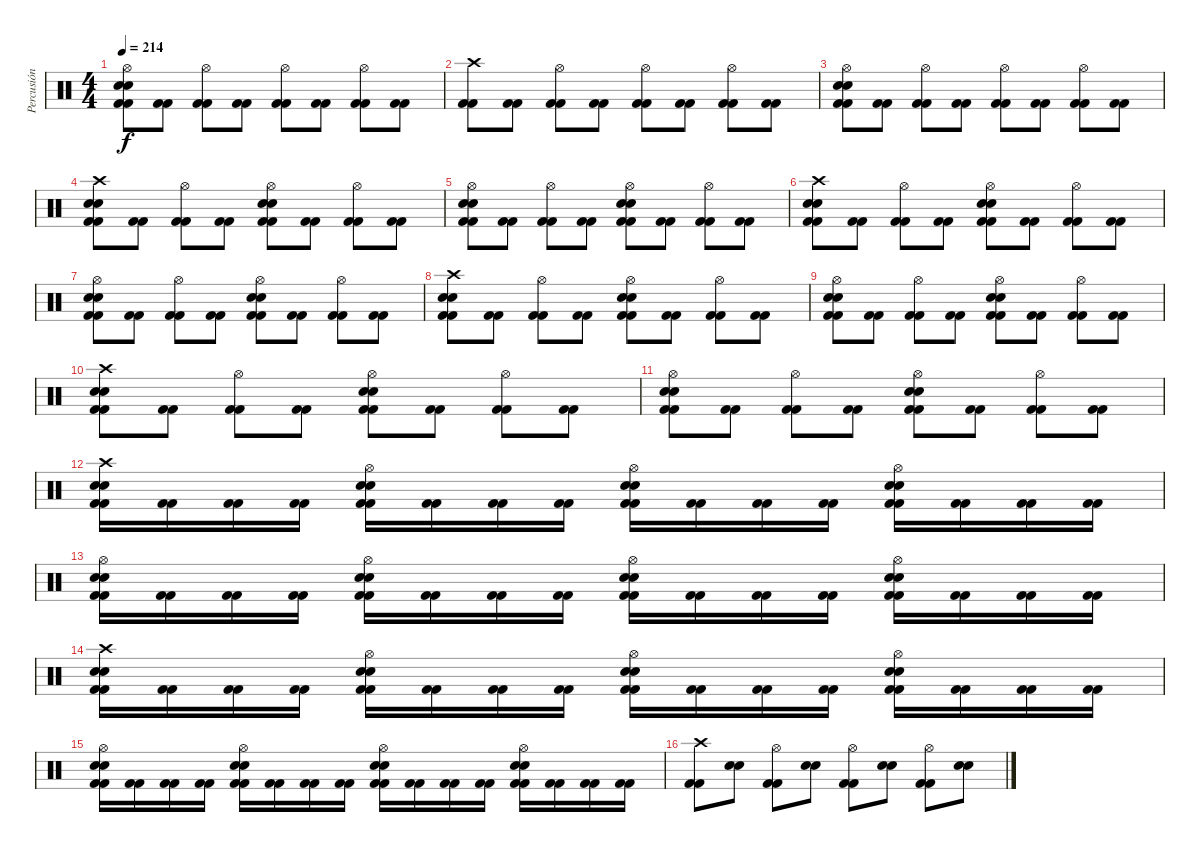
\track ("Percusión" "Percusión") {instrument percussion}
\staff {score}
\articulation defaults
\ts (4 4)
\tempo 214
\clef neutral
\ks c
("Kick (hit) 2" "Kick (hit) 2" "Electric Snare (hit)" "Electric Snare (hit)" "Hi-Hat (open)").8{dy f} ("Kick (hit) 2" "Kick (hit) 2").8 ("Kick (hit) 2" "Kick (hit) 2" "Hi-Hat (open)").8 ("Kick (hit) 2" "Kick (hit) 2").8 ("Kick (hit) 2" "Kick (hit) 2" "Hi-Hat (open)").8 ("Kick (hit) 2" "Kick (hit) 2").8 ("Kick (hit) 2" "Kick (hit) 2" "Hi-Hat (open)").8 ("Kick (hit) 2" "Kick (hit) 2").8 |
("Kick (hit) 2" "Kick (hit) 2" "Crash high (hit)").8 ("Kick (hit) 2" "Kick (hit) 2").8 ("Kick (hit) 2" "Kick (hit) 2" "Hi-Hat (open)").8 ("Kick (hit) 2" "Kick (hit) 2").8 ("Kick (hit) 2" "Kick (hit) 2" "Hi-Hat (open)").8 ("Kick (hit) 2" "Kick (hit) 2").8 ("Kick (hit) 2" "Kick (hit) 2" "Hi-Hat (open)").8 ("Kick (hit) 2" "Kick (hit) 2").8 |
("Kick (hit) 2" "Kick (hit) 2" "Electric Snare (hit)" "Electric Snare (hit)" "Hi-Hat (open)").8 ("Kick (hit) 2" "Kick (hit) 2").8 ("Kick (hit) 2" "Kick (hit) 2" "Hi-Hat (open)").8 ("Kick (hit) 2" "Kick (hit) 2").8 ("Kick (hit) 2" "Kick (hit) 2" "Hi-Hat (open)").8 ("Kick (hit) 2" "Kick (hit) 2").8 ("Kick (hit) 2" "Kick (hit) 2" "Hi-Hat (open)").8 ("Kick (hit) 2" "Kick (hit) 2").8 |
("Kick (hit) 2" "Kick (hit) 2" "Electric Snare (hit)" "Electric Snare (hit)" "Crash high (hit)").8 ("Kick (hit) 2" "Kick (hit) 2").8 ("Kick (hit) 2" "Kick (hit) 2" "Hi-Hat (open)").8 ("Kick (hit) 2" "Kick (hit) 2").8 ("Kick (hit) 2" "Kick (hit) 2" "Electric Snare (hit)" "Electric Snare (hit)" "Hi-Hat (open)").8 ("Kick (hit) 2" "Kick (hit) 2").8 ("Kick (hit) 2" "Kick (hit) 2" "Hi-Hat (open)").8 ("Kick (hit) 2" "Kick (hit) 2").8 |
("Kick (hit) 2" "Kick (hit) 2" "Electric Snare (hit)" "Electric Snare (hit)" "Hi-Hat (open)").8 ("Kick (hit) 2" "Kick (hit) 2").8 ("Kick (hit) 2" "Kick (hit) 2" "Hi-Hat (open)").8 ("Kick (hit) 2" "Kick (hit) 2").8 ("Kick (hit) 2" "Kick (hit) 2" "Electric Snare (hit)" "Electric Snare (hit)" "Hi-Hat (open)").8 ("Kick (hit) 2" "Kick (hit) 2").8 ("Kick (hit) 2" "Kick (hit) 2" "Hi-Hat (open)").8 ("Kick (hit) 2" "Kick (hit) 2").8 |
("Kick (hit) 2" "Kick (hit) 2" "Electric Snare (hit)" "Electric Snare (hit)" "Crash high (hit)").8 ("Kick (hit) 2" "Kick (hit) 2").8 ("Kick (hit) 2" "Kick (hit) 2" "Hi-Hat (open)").8 ("Kick (hit) 2" "Kick (hit) 2").8 ("Kick (hit) 2" "Kick (hit) 2" "Electric Snare (hit)" "Electric Snare (hit)" "Hi-Hat (open)").8 ("Kick (hit) 2" "Kick (hit) 2").8 ("Kick (hit) 2" "Kick (hit) 2" "Hi-Hat (open)").8 ("Kick (hit) 2" "Kick (hit) 2").8 |
("Kick (hit) 2" "Kick (hit) 2" "Electric Snare (hit)" "Electric Snare (hit)" "Hi-Hat (open)").8 ("Kick (hit) 2" "Kick (hit) 2").8 ("Kick (hit) 2" "Kick (hit) 2" "Hi-Hat (open)").8 ("Kick (hit) 2" "Kick (hit) 2").8 ("Kick (hit) 2" "Kick (hit) 2" "Electric Snare (hit)" "Electric Snare (hit)" "Hi-Hat (open)").8 ("Kick (hit) 2" "Kick (hit) 2").8 ("Kick (hit) 2" "Kick (hit) 2" "Hi-Hat (open)").8 ("Kick (hit) 2" "Kick (hit) 2").8 |
("Kick (hit) 2" "Kick (hit) 2" "Electric Snare (hit)" "Electric Snare (hit)" "Crash high (hit)").8 ("Kick (hit) 2" "Kick (hit) 2").8 ("Kick (hit) 2" "Kick (hit) 2" "Hi-Hat (open)").8 ("Kick (hit) 2" "Kick (hit) 2").8 ("Kick (hit) 2" "Kick (hit) 2" "Electric Snare (hit)" "Electric Snare (hit)" "Hi-Hat (open)").8 ("Kick (hit) 2" "Kick (hit) 2").8 ("Kick (hit) 2" "Kick (hit) 2" "Hi-Hat (open)").8 ("Kick (hit) 2" "Kick (hit) 2").8 |
("Kick (hit) 2" "Kick (hit) 2" "Electric Snare (hit)" "Electric Snare (hit)" "Hi-Hat (open)").8 ("Kick (hit) 2" "Kick (hit) 2").8 ("Kick (hit) 2" "Kick (hit) 2" "Hi-Hat (open)").8 ("Kick (hit) 2" "Kick (hit) 2").8 ("Kick (hit) 2" "Kick (hit) 2" "Electric Snare (hit)" "Electric Snare (hit)" "Hi-Hat (open)").8 ("Kick (hit) 2" "Kick (hit) 2").8 ("Kick (hit) 2" "Kick (hit) 2" "Hi-Hat (open)").8 ("Kick (hit) 2" "Kick (hit) 2").8 |
("Kick (hit) 2" "Kick (hit) 2" "Electric Snare (hit)" "Electric Snare (hit)" "Crash high (hit)").8 ("Kick (hit) 2" "Kick (hit) 2").8 ("Kick (hit) 2" "Kick (hit) 2" "Hi-Hat (open)").8 ("Kick (hit) 2" "Kick (hit) 2").8 ("Kick (hit) 2" "Kick (hit) 2" "Electric Snare (hit)" "Electric Snare (hit)" "Hi-Hat (open)").8 ("Kick (hit) 2" "Kick (hit) 2").8 ("Kick (hit) 2" "Kick (hit) 2" "Hi-Hat (open)").8 ("Kick (hit) 2" "Kick (hit) 2").8 |
("Kick (hit) 2" "Kick (hit) 2" "Electric Snare (hit)" "Electric Snare (hit)" "Hi-Hat (open)").8 ("Kick (hit) 2" "Kick (hit) 2").8 ("Kick (hit) 2" "Kick (hit) 2" "Hi-Hat (open)").8 ("Kick (hit) 2" "Kick (hit) 2").8 ("Kick (hit) 2" "Kick (hit) 2" "Electric Snare (hit)" "Electric Snare (hit)" "Hi-Hat (open)").8 ("Kick (hit) 2" "Kick (hit) 2").8 ("Kick (hit) 2" "Kick (hit) 2" "Hi-Hat (open)").8 ("Kick (hit) 2" "Kick (hit) 2").8 |
("Kick (hit) 2" "Kick (hit) 2" "Electric Snare (hit)" "Electric Snare (hit)" "Crash high (hit)").16 ("Kick (hit) 2" "Kick (hit) 2").16 ("Kick (hit) 2" "Kick (hit) 2").16 ("Kick (hit) 2" "Kick (hit) 2").16 ("Kick (hit) 2" "Kick (hit) 2" "Electric Snare (hit)" "Electric Snare (hit)" "Hi-Hat (open)").16 ("Kick (hit) 2" "Kick (hit) 2").16 ("Kick (hit) 2" "Kick (hit) 2").16 ("Kick (hit) 2" "Kick (hit) 2").16 ("Kick (hit) 2" "Kick (hit) 2" "Electric Snare (hit)" "Electric Snare (hit)" "Hi-Hat (open)").16 ("Kick (hit) 2" "Kick (hit) 2").16 ("Kick (hit) 2" "Kick (hit) 2").16 ("Kick (hit) 2" "Kick (hit) 2").16 ("Kick (hit) 2" "Kick (hit) 2" "Electric Snare (hit)" "Electric Snare (hit)" "Hi-Hat (open)").16 ("Kick (hit) 2" "Kick (hit) 2").16 ("Kick (hit) 2" "Kick (hit) 2").16 ("Kick (hit) 2" "Kick (hit) 2").16 |
("Kick (hit) 2" "Kick (hit) 2" "Electric Snare (hit)" "Electric Snare (hit)" "Hi-Hat (open)").16 ("Kick (hit) 2" "Kick (hit) 2").16 ("Kick (hit) 2" "Kick (hit) 2").16 ("Kick (hit) 2" "Kick (hit) 2").16 ("Kick (hit) 2" "Kick (hit) 2" "Electric Snare (hit)" "Electric Snare (hit)" "Hi-Hat (open)").16 ("Kick (hit) 2" "Kick (hit) 2").16 ("Kick (hit) 2" "Kick (hit) 2").16 ("Kick (hit) 2" "Kick (hit) 2").16 ("Kick (hit) 2" "Kick (hit) 2" "Electric Snare (hit)" "Electric Snare (hit)" "Hi-Hat (open)").16 ("Kick (hit) 2" "Kick (hit) 2").16 ("Kick (hit) 2" "Kick (hit) 2").16 ("Kick (hit) 2" "Kick (hit) 2").16 ("Kick (hit) 2" "Kick (hit) 2" "Electric Snare (hit)" "Electric Snare (hit)" "Hi-Hat (open)").16 ("Kick (hit) 2" "Kick (hit) 2").16 ("Kick (hit) 2" "Kick (hit) 2").16 ("Kick (hit) 2" "Kick (hit) 2").16 |
("Kick (hit) 2" "Kick (hit) 2" "Electric Snare (hit)" "Electric Snare (hit)" "Crash high (hit)").16 ("Kick (hit) 2" "Kick (hit) 2").16 ("Kick (hit) 2" "Kick (hit) 2").16 ("Kick (hit) 2" "Kick (hit) 2").16 ("Kick (hit) 2" "Kick (hit) 2" "Electric Snare (hit)" "Electric Snare (hit)" "Hi-Hat (open)").16 ("Kick (hit) 2" "Kick (hit) 2").16 ("Kick (hit) 2" "Kick (hit) 2").16 ("Kick (hit) 2" "Kick (hit) 2").16 ("Kick (hit) 2" "Kick (hit) 2" "Electric Snare (hit)" "Electric Snare (hit)" "Hi-Hat (open)").16 ("Kick (hit) 2" "Kick (hit) 2").16 ("Kick (hit) 2" "Kick (hit) 2").16 ("Kick (hit) 2" "Kick (hit) 2").16 ("Kick (hit) 2" "Kick (hit) 2" "Electric Snare (hit)" "Electric Snare (hit)" "Hi-Hat (open)").16 ("Kick (hit) 2" "Kick (hit) 2").16 ("Kick (hit) 2" "Kick (hit) 2").16 ("Kick (hit) 2" "Kick (hit) 2").16 |
("Kick (hit) 2" "Kick (hit) 2" "Electric Snare (hit)" "Electric Snare (hit)" "Hi-Hat (open)").16 ("Kick (hit) 2" "Kick (hit) 2").16 ("Kick (hit) 2" "Kick (hit) 2").16 ("Kick (hit) 2" "Kick (hit) 2").16 ("Kick (hit) 2" "Kick (hit) 2" "Electric Snare (hit)" "Electric Snare (hit)" "Hi-Hat (open)").16 ("Kick (hit) 2" "Kick (hit) 2").16 ("Kick (hit) 2" "Kick (hit) 2").16 ("Kick (hit) 2" "Kick (hit) 2").16 ("Kick (hit) 2" "Kick (hit) 2" "Electric Snare (hit)" "Electric Snare (hit)" "Hi-Hat (open)").16 ("Kick (hit) 2" "Kick (hit) 2").16 ("Kick (hit) 2" "Kick (hit) 2").16 ("Kick (hit) 2" "Kick (hit) 2").16 ("Kick (hit) 2" "Kick (hit) 2" "Electric Snare (hit)" "Electric Snare (hit)" "Hi-Hat (open)").16 ("Kick (hit) 2" "Kick (hit) 2").16 ("Kick (hit) 2" "Kick (hit) 2").16 ("Kick (hit) 2" "Kick (hit) 2").16 |
("Kick (hit) 2" "Kick (hit) 2" "Crash high (hit)").8 ("Electric Snare (hit)" "Electric Snare (hit)").8 ("Kick (hit) 2" "Kick (hit) 2" "Hi-Hat (open)").8 ("Electric Snare (hit)" "Electric Snare (hit)").8 ("Kick (hit) 2" "Kick (hit) 2" "Hi-Hat (open)").8 ("Electric Snare (hit)" "Electric Snare (hit)").8 ("Kick (hit) 2" "Kick (hit) 2" "Hi-Hat (open)").8 ("Electric Snare (hit)" "Electric Snare (hit)").8
